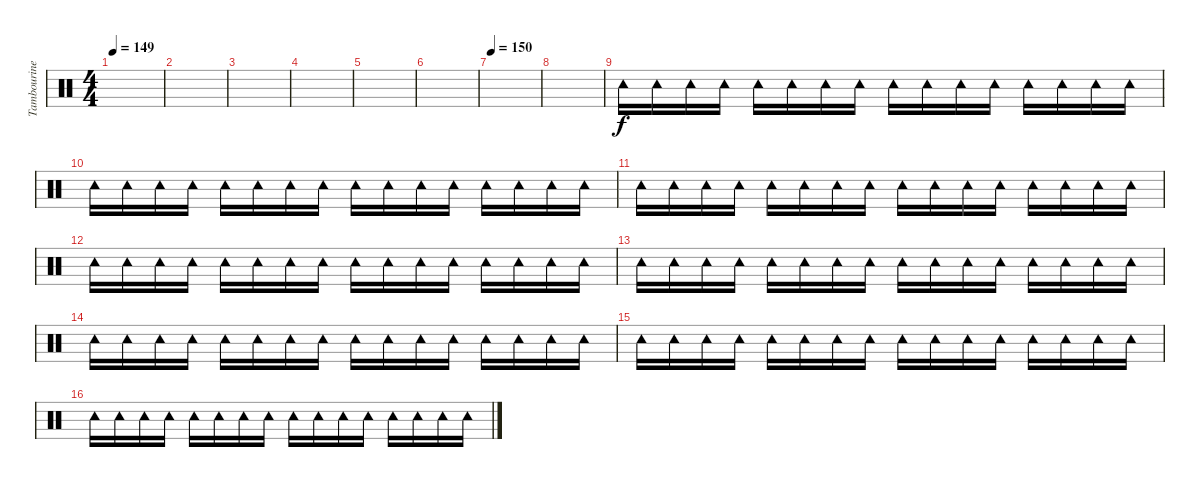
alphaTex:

\track ("Tambourine" "Tambourine") {instrument percussion}
\staff {score}
\articulation defaults
\ts (4 4)
\tempo 149
\clef neutral
\ks c
|
|
|
|
|
|
\tempo 150
|
|
"Tambourine (hit)".16 "Tambourine (hit)".16 "Tambourine (hit)".16 "Tambourine (hit)".16 "Tambourine (hit)".16 "Tambourine (hit)".16 "Tambourine (hit)".16 "Tambourine (hit)".16 "Tambourine (hit)".16 "Tambourine (hit)".16 "Tambourine (hit)".16 "Tambourine (hit)".16 "Tambourine (hit)".16 "Tambourine (hit)".16 "Tambourine (hit)".16 "Tambourine (hit)".16 |
"Tambourine (hit)".16 "Tambourine (hit)".16 "Tambourine (hit)".16 "Tambourine (hit)".16 "Tambourine (hit)".16 "Tambourine (hit)".16 "Tambourine (hit)".16 "Tambourine (hit)".16 "Tambourine (hit)".16 "Tambourine (hit)".16 "Tambourine (hit)".16 "Tambourine (hit)".16 "Tambourine (hit)".16 "Tambourine (hit)".16 "Tambourine (hit)".16 "Tambourine (hit)".16 |
"Tambourine (hit)".16 "Tambourine (hit)".16 "Tambourine (hit)".16 "Tambourine (hit)".16 "Tambourine (hit)".16 "Tambourine (hit)".16 "Tambourine (hit)".16 "Tambourine (hit)".16 "Tambourine (hit)".16 "Tambourine (hit)".16 "Tambourine (hit)".16 "Tambourine (hit)".16 "Tambourine (hit)".16 "Tambourine (hit)".16 "Tambourine (hit)".16 "Tambourine (hit)".16 |
"Tambourine (hit)".16 "Tambourine (hit)".16 "Tambourine (hit)".16 "Tambourine (hit)".16 "Tambourine (hit)".16 "Tambourine (hit)".16 "Tambourine (hit)".16 "Tambourine (hit)".16 "Tambourine (hit)".16 "Tambourine (hit)".16 "Tambourine (hit)".16 "Tambourine (hit)".16 "Tambourine (hit)".16 "Tambourine (hit)".16 "Tambourine (hit)".16 "Tambourine (hit)".16 |
"Tambourine (hit)".16 "Tambourine (hit)".16 "Tambourine (hit)".16 "Tambourine (hit)".16 "Tambourine (hit)".16 "Tambourine (hit)".16 "Tambourine (hit)".16 "Tambourine (hit)".16 "Tambourine (hit)".16 "Tambourine (hit)".16 "Tambourine (hit)".16 "Tambourine (hit)".16 "Tambourine (hit)".16 "Tambourine (hit)".16 "Tambourine (hit)".16 "Tambourine (hit)".16 |
"Tambourine (hit)".16 "Tambourine (hit)".16 "Tambourine (hit)".16 "Tambourine (hit)".16 "Tambourine (hit)".16 "Tambourine (hit)".16 "Tambourine (hit)".16 "Tambourine (hit)".16 "Tambourine (hit)".16 "Tambourine (hit)".16 "Tambourine (hit)".16 "Tambourine (hit)".16 "Tambourine (hit)".16 "Tambourine (hit)".16 "Tambourine (hit)".16 "Tambourine (hit)".16 |
"Tambourine (hit)".16 "Tambourine (hit)".16 "Tambourine (hit)".16 "Tambourine (hit)".16 "Tambourine (hit)".16 "Tambourine (hit)".16 "Tambourine (hit)".16 "Tambourine (hit)".16 "Tambourine (hit)".16 "Tambourine (hit)".16 "Tambourine (hit)".16 "Tambourine (hit)".16 "Tambourine (hit)".16 "Tambourine (hit)".16 "Tambourine (hit)".16 "Tambourine (hit)".16 |
"Tambourine (hit)".16 "Tambourine (hit)".16 "Tambourine (hit)".16 "Tambourine (hit)".16 "Tambourine (hit)".16 "Tambourine (hit)".16 "Tambourine (hit)".16 "Tambourine (hit)".16 "Tambourine (hit)".16 "Tambourine (hit)".16 "Tambourine (hit)".16 "Tambourine (hit)".16 "Tambourine (hit)".16 "Tambourine (hit)".16 "Tambourine (hit)".16 "Tambourine (hit)".16
